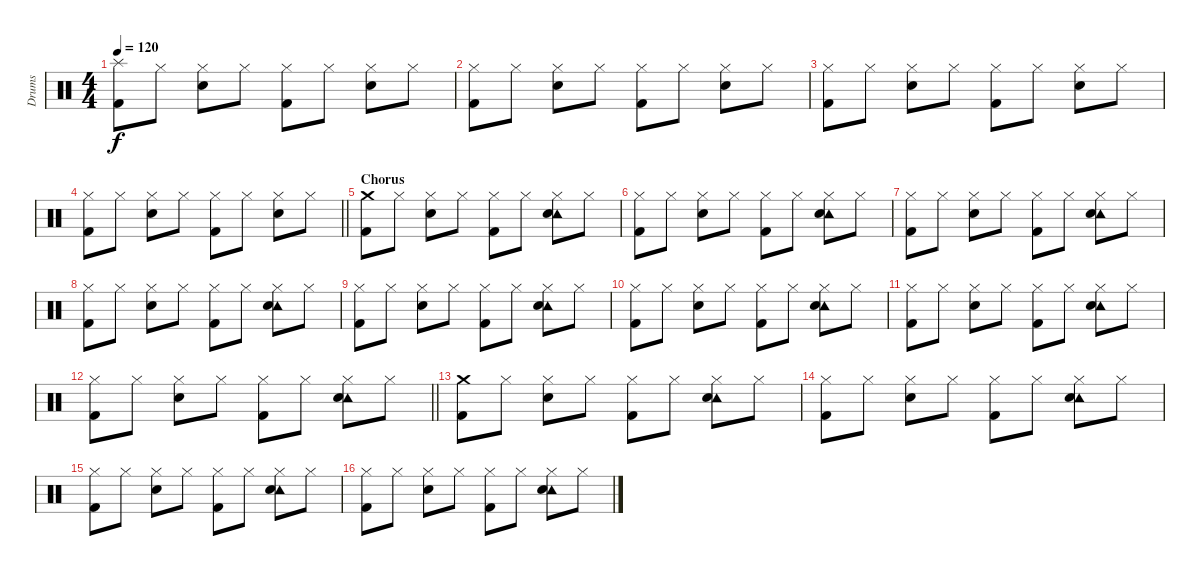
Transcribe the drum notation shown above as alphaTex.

\track ("Drums" "Drums") {instrument percussion}
\staff {score}
\articulation defaults
\ts (4 4)
\tempo 120
\clef neutral
\ks c
("Splash (hit)" "Kick (hit) 2").8{dy f} "Hi-Hat (closed)".8 ("Hi-Hat (closed)" "Electric Snare (hit)").8 "Hi-Hat (closed)".8 ("Hi-Hat (closed)" "Kick (hit) 2").8 "Hi-Hat (closed)".8 ("Hi-Hat (closed)" "Electric Snare (hit)").8 "Hi-Hat (closed)".8 |
("Hi-Hat (closed)" "Kick (hit) 2").8 "Hi-Hat (closed)".8 ("Hi-Hat (closed)" "Electric Snare (hit)").8 "Hi-Hat (closed)".8 ("Hi-Hat (closed)" "Kick (hit) 2").8 "Hi-Hat (closed)".8 ("Hi-Hat (closed)" "Electric Snare (hit)").8 "Hi-Hat (closed)".8 |
("Hi-Hat (closed)" "Kick (hit) 2").8 "Hi-Hat (closed)".8 ("Hi-Hat (closed)" "Electric Snare (hit)").8 "Hi-Hat (closed)".8 ("Hi-Hat (closed)" "Kick (hit) 2").8 "Hi-Hat (closed)".8 ("Hi-Hat (closed)" "Electric Snare (hit)").8 "Hi-Hat (closed)".8 |
\barLineRight lightlight
("Hi-Hat (closed)" "Kick (hit) 2").8 "Hi-Hat (closed)".8 ("Hi-Hat (closed)" "Electric Snare (hit)").8 "Hi-Hat (closed)".8 ("Hi-Hat (closed)" "Kick (hit) 2").8 "Hi-Hat (closed)".8 ("Hi-Hat (closed)" "Electric Snare (hit)").8 "Hi-Hat (closed)".8 |
\section ("" "Chorus")
("Crash medium (hit)" "Kick (hit) 2").8 "Hi-Hat (closed)".8 ("Hi-Hat (closed)" "Electric Snare (hit)").8 "Hi-Hat (closed)".8 ("Hi-Hat (closed)" "Kick (hit) 2").8 "Hi-Hat (closed)".8 ("Hi-Hat (closed)" "Tambourine (hit)" "Electric Snare (hit)").8 "Hi-Hat (closed)".8 |
("Hi-Hat (closed)" "Kick (hit) 2").8 "Hi-Hat (closed)".8 ("Hi-Hat (closed)" "Electric Snare (hit)").8 "Hi-Hat (closed)".8 ("Hi-Hat (closed)" "Kick (hit) 2").8 "Hi-Hat (closed)".8 ("Hi-Hat (closed)" "Tambourine (hit)" "Electric Snare (hit)").8 "Hi-Hat (closed)".8 |
("Hi-Hat (closed)" "Kick (hit) 2").8 "Hi-Hat (closed)".8 ("Hi-Hat (closed)" "Electric Snare (hit)").8 "Hi-Hat (closed)".8 ("Hi-Hat (closed)" "Kick (hit) 2").8 "Hi-Hat (closed)".8 ("Hi-Hat (closed)" "Tambourine (hit)" "Electric Snare (hit)").8 "Hi-Hat (closed)".8 |
("Hi-Hat (closed)" "Kick (hit) 2").8 "Hi-Hat (closed)".8 ("Hi-Hat (closed)" "Electric Snare (hit)").8 "Hi-Hat (closed)".8 ("Hi-Hat (closed)" "Kick (hit) 2").8 "Hi-Hat (closed)".8 ("Hi-Hat (closed)" "Tambourine (hit)" "Electric Snare (hit)").8 "Hi-Hat (closed)".8 |
("Hi-Hat (closed)" "Kick (hit) 2").8 "Hi-Hat (closed)".8 ("Hi-Hat (closed)" "Electric Snare (hit)").8 "Hi-Hat (closed)".8 ("Hi-Hat (closed)" "Kick (hit) 2").8 "Hi-Hat (closed)".8 ("Hi-Hat (closed)" "Tambourine (hit)" "Electric Snare (hit)").8 "Hi-Hat (closed)".8 |
("Hi-Hat (closed)" "Kick (hit) 2").8 "Hi-Hat (closed)".8 ("Hi-Hat (closed)" "Electric Snare (hit)").8 "Hi-Hat (closed)".8 ("Hi-Hat (closed)" "Kick (hit) 2").8 "Hi-Hat (closed)".8 ("Hi-Hat (closed)" "Tambourine (hit)" "Electric Snare (hit)").8 "Hi-Hat (closed)".8 |
("Hi-Hat (closed)" "Kick (hit) 2").8 "Hi-Hat (closed)".8 ("Hi-Hat (closed)" "Electric Snare (hit)").8 "Hi-Hat (closed)".8 ("Hi-Hat (closed)" "Kick (hit) 2").8 "Hi-Hat (closed)".8 ("Hi-Hat (closed)" "Tambourine (hit)" "Electric Snare (hit)").8 "Hi-Hat (closed)".8 |
\barLineRight lightlight
("Hi-Hat (closed)" "Kick (hit) 2").8 "Hi-Hat (closed)".8 ("Hi-Hat (closed)" "Electric Snare (hit)").8 "Hi-Hat (closed)".8 ("Hi-Hat (closed)" "Kick (hit) 2").8 "Hi-Hat (closed)".8 ("Hi-Hat (closed)" "Tambourine (hit)" "Electric Snare (hit)").8 "Hi-Hat (closed)".8 |
("Crash medium (hit)" "Kick (hit) 2").8 "Hi-Hat (closed)".8 ("Hi-Hat (closed)" "Electric Snare (hit)").8 "Hi-Hat (closed)".8 ("Hi-Hat (closed)" "Kick (hit) 2").8 "Hi-Hat (closed)".8 ("Hi-Hat (closed)" "Tambourine (hit)" "Electric Snare (hit)").8 "Hi-Hat (closed)".8 |
("Hi-Hat (closed)" "Kick (hit) 2").8 "Hi-Hat (closed)".8 ("Hi-Hat (closed)" "Electric Snare (hit)").8 "Hi-Hat (closed)".8 ("Hi-Hat (closed)" "Kick (hit) 2").8 "Hi-Hat (closed)".8 ("Hi-Hat (closed)" "Tambourine (hit)" "Electric Snare (hit)").8 "Hi-Hat (closed)".8 |
("Hi-Hat (closed)" "Kick (hit) 2").8 "Hi-Hat (closed)".8 ("Hi-Hat (closed)" "Electric Snare (hit)").8 "Hi-Hat (closed)".8 ("Hi-Hat (closed)" "Kick (hit) 2").8 "Hi-Hat (closed)".8 ("Hi-Hat (closed)" "Tambourine (hit)" "Electric Snare (hit)").8 "Hi-Hat (closed)".8 |
("Hi-Hat (closed)" "Kick (hit) 2").8 "Hi-Hat (closed)".8 ("Hi-Hat (closed)" "Electric Snare (hit)").8 "Hi-Hat (closed)".8 ("Hi-Hat (closed)" "Kick (hit) 2").8 "Hi-Hat (closed)".8 ("Hi-Hat (closed)" "Tambourine (hit)" "Electric Snare (hit)").8 "Hi-Hat (closed)".8
